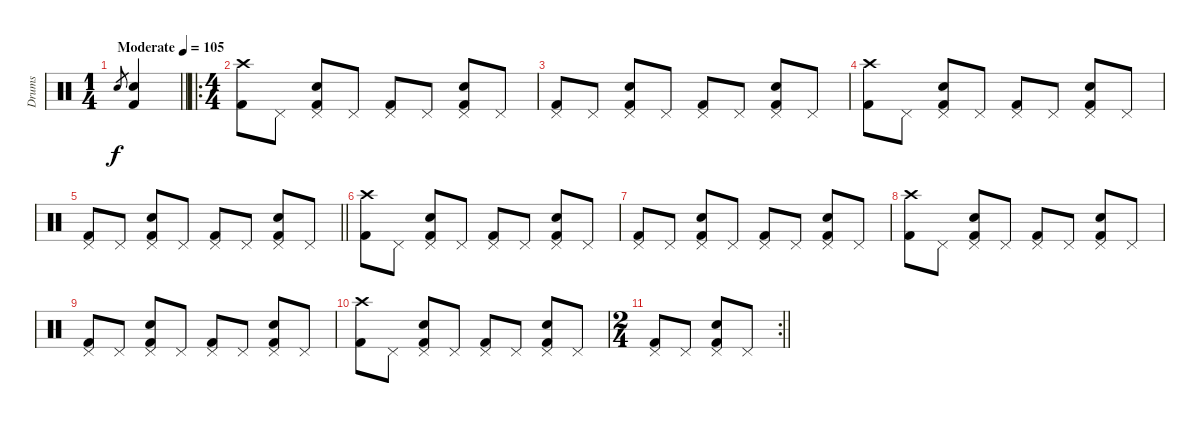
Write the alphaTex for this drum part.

\track ("Drums" "Drums") {instrument percussion}
\staff {score}
\articulation defaults
\ts (1 4)
\tempo (105 "Moderate")
\clef neutral
\barLineRight lightlight
\ks c "Snare (hit) 2".8{gr dy f}
("Kick (hit) 2" "Snare (hit) 2").4 |
\ro
\ts (4 4)
("Kick (hit) 2" "Crash high (hit)").8 "Pedal Hi-Hat (hit)".8 ("Kick (hit) 2" "Snare (hit) 2" "Pedal Hi-Hat (hit)").8 "Pedal Hi-Hat (hit)".8 ("Kick (hit) 2" "Pedal Hi-Hat (hit)").8 "Pedal Hi-Hat (hit)".8 ("Kick (hit) 2" "Snare (hit) 2" "Pedal Hi-Hat (hit)").8 "Pedal Hi-Hat (hit)".8 |
("Kick (hit) 2" "Pedal Hi-Hat (hit)").8 "Pedal Hi-Hat (hit)".8 ("Kick (hit) 2" "Snare (hit) 2" "Pedal Hi-Hat (hit)").8 "Pedal Hi-Hat (hit)".8 ("Kick (hit) 2" "Pedal Hi-Hat (hit)").8 "Pedal Hi-Hat (hit)".8 ("Kick (hit) 2" "Snare (hit) 2" "Pedal Hi-Hat (hit)").8 "Pedal Hi-Hat (hit)".8 |
("Kick (hit) 2" "Crash high (hit)").8 "Pedal Hi-Hat (hit)".8 ("Kick (hit) 2" "Snare (hit) 2" "Pedal Hi-Hat (hit)").8 "Pedal Hi-Hat (hit)".8 ("Kick (hit) 2" "Pedal Hi-Hat (hit)").8 "Pedal Hi-Hat (hit)".8 ("Kick (hit) 2" "Snare (hit) 2" "Pedal Hi-Hat (hit)").8 "Pedal Hi-Hat (hit)".8 |
\barLineRight lightlight
("Kick (hit) 2" "Pedal Hi-Hat (hit)").8 "Pedal Hi-Hat (hit)".8 ("Kick (hit) 2" "Snare (hit) 2" "Pedal Hi-Hat (hit)").8 "Pedal Hi-Hat (hit)".8 ("Kick (hit) 2" "Pedal Hi-Hat (hit)").8 "Pedal Hi-Hat (hit)".8 ("Kick (hit) 2" "Snare (hit) 2" "Pedal Hi-Hat (hit)").8 "Pedal Hi-Hat (hit)".8 |
("Kick (hit) 2" "Crash high (hit)").8 "Pedal Hi-Hat (hit)".8 ("Kick (hit) 2" "Snare (hit) 2" "Pedal Hi-Hat (hit)").8 "Pedal Hi-Hat (hit)".8 ("Kick (hit) 2" "Pedal Hi-Hat (hit)").8 "Pedal Hi-Hat (hit)".8 ("Kick (hit) 2" "Snare (hit) 2" "Pedal Hi-Hat (hit)").8 "Pedal Hi-Hat (hit)".8 |
("Kick (hit) 2" "Pedal Hi-Hat (hit)").8 "Pedal Hi-Hat (hit)".8 ("Kick (hit) 2" "Snare (hit) 2" "Pedal Hi-Hat (hit)").8 "Pedal Hi-Hat (hit)".8 ("Kick (hit) 2" "Pedal Hi-Hat (hit)").8 "Pedal Hi-Hat (hit)".8 ("Kick (hit) 2" "Snare (hit) 2" "Pedal Hi-Hat (hit)").8 "Pedal Hi-Hat (hit)".8 |
("Kick (hit) 2" "Crash high (hit)").8 "Pedal Hi-Hat (hit)".8 ("Kick (hit) 2" "Snare (hit) 2" "Pedal Hi-Hat (hit)").8 "Pedal Hi-Hat (hit)".8 ("Kick (hit) 2" "Pedal Hi-Hat (hit)").8 "Pedal Hi-Hat (hit)".8 ("Kick (hit) 2" "Snare (hit) 2" "Pedal Hi-Hat (hit)").8 "Pedal Hi-Hat (hit)".8 |
("Kick (hit) 2" "Pedal Hi-Hat (hit)").8 "Pedal Hi-Hat (hit)".8 ("Kick (hit) 2" "Snare (hit) 2" "Pedal Hi-Hat (hit)").8 "Pedal Hi-Hat (hit)".8 ("Kick (hit) 2" "Pedal Hi-Hat (hit)").8 "Pedal Hi-Hat (hit)".8 ("Kick (hit) 2" "Snare (hit) 2" "Pedal Hi-Hat (hit)").8 "Pedal Hi-Hat (hit)".8 |
("Kick (hit) 2" "Crash high (hit)").8 "Pedal Hi-Hat (hit)".8 ("Kick (hit) 2" "Snare (hit) 2" "Pedal Hi-Hat (hit)").8 "Pedal Hi-Hat (hit)".8 ("Kick (hit) 2" "Pedal Hi-Hat (hit)").8 "Pedal Hi-Hat (hit)".8 ("Kick (hit) 2" "Snare (hit) 2" "Pedal Hi-Hat (hit)").8 "Pedal Hi-Hat (hit)".8 |
\rc 2
\ts (2 4)
\barLineRight lightlight
("Kick (hit) 2" "Pedal Hi-Hat (hit)").8 "Pedal Hi-Hat (hit)".8 ("Kick (hit) 2" "Snare (hit) 2" "Pedal Hi-Hat (hit)").8 "Pedal Hi-Hat (hit)".8
